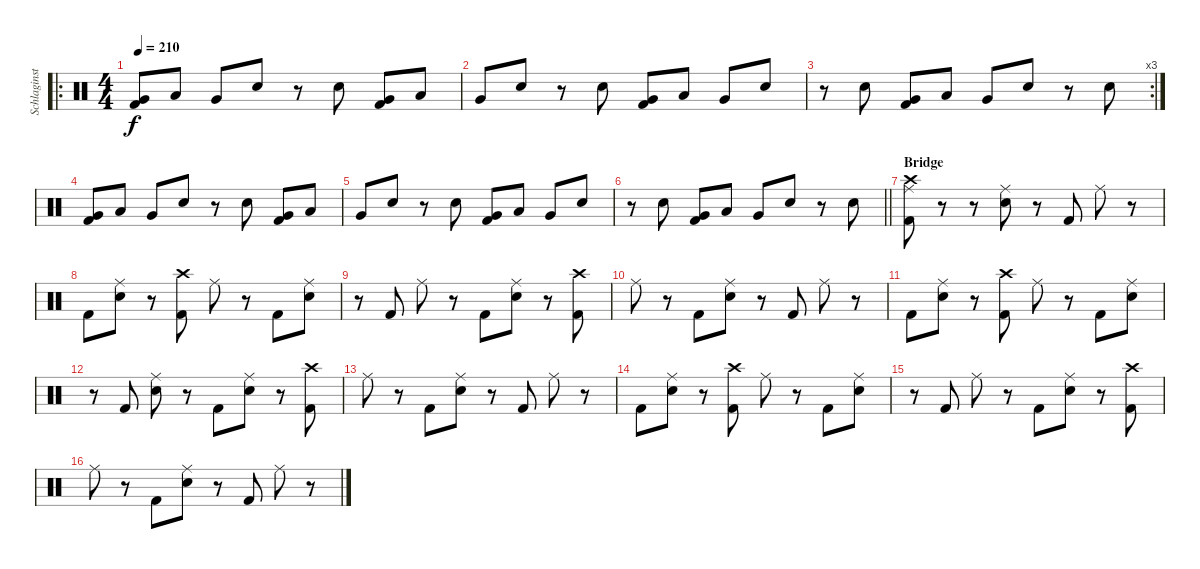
\track ("Schlaginstrumente - Auswahl" "Schlaginst") {instrument percussion}
\staff {score}
\articulation defaults
\ro
\ts (4 4)
\tempo 210
\clef neutral
\ks c
("Kick (hit) 2" "Very Low Tom (hit)").8{dy f} "Low Tom (hit)".8 "Very Low Tom (hit)".8 "Electric Snare (hit)".8 r.8 "Electric Snare (hit)".8 ("Kick (hit) 2" "Very Low Tom (hit)").8 "Low Tom (hit)".8 |
"Very Low Tom (hit)".8 "Electric Snare (hit)".8 r.8 "Electric Snare (hit)".8 ("Kick (hit) 2" "Very Low Tom (hit)").8 "Low Tom (hit)".8 "Very Low Tom (hit)".8 "Electric Snare (hit)".8 |
\rc 3
r.8 "Electric Snare (hit)".8 ("Kick (hit) 2" "Very Low Tom (hit)").8 "Low Tom (hit)".8 "Very Low Tom (hit)".8 "Electric Snare (hit)".8 r.8 "Electric Snare (hit)".8 |
("Kick (hit) 2" "Very Low Tom (hit)").8 "Low Tom (hit)".8 "Very Low Tom (hit)".8 "Electric Snare (hit)".8 r.8 "Electric Snare (hit)".8 ("Kick (hit) 2" "Very Low Tom (hit)").8 "Low Tom (hit)".8 |
"Very Low Tom (hit)".8 "Electric Snare (hit)".8 r.8 "Electric Snare (hit)".8 ("Kick (hit) 2" "Very Low Tom (hit)").8 "Low Tom (hit)".8 "Very Low Tom (hit)".8 "Electric Snare (hit)".8 |
\barLineRight lightlight
r.8 "Electric Snare (hit)".8 ("Kick (hit) 2" "Very Low Tom (hit)").8 "Low Tom (hit)".8 "Very Low Tom (hit)".8 "Electric Snare (hit)".8 r.8 "Electric Snare (hit)".8 |
\section ("" "Bridge")
("Ride (middle)" "Crash high (hit)" "Kick (hit) 2").8 r.8 r.8 ("Ride (middle)" "Electric Snare (hit)").8 r.8 "Kick (hit) 2".8 "Ride (middle)".8 r.8 |
"Kick (hit) 2".8 ("Ride (middle)" "Electric Snare (hit)").8 r.8 ("Crash high (hit)" "Kick (hit) 2").8 "Ride (middle)".8 r.8 "Kick (hit) 2".8 ("Ride (middle)" "Electric Snare (hit)").8 |
r.8 "Kick (hit) 2".8 "Ride (middle)".8 r.8 "Kick (hit) 2".8 ("Ride (middle)" "Electric Snare (hit)").8 r.8 ("Crash high (hit)" "Kick (hit) 2").8 |
"Ride (middle)".8 r.8 "Kick (hit) 2".8 ("Ride (middle)" "Electric Snare (hit)").8 r.8 "Kick (hit) 2".8 "Ride (middle)".8 r.8 |
"Kick (hit) 2".8 ("Ride (middle)" "Electric Snare (hit)").8 r.8 ("Crash high (hit)" "Kick (hit) 2").8 "Ride (middle)".8 r.8 "Kick (hit) 2".8 ("Ride (middle)" "Electric Snare (hit)").8 |
r.8 "Kick (hit) 2".8 ("Ride (middle)" "Electric Snare (hit)").8 r.8 "Kick (hit) 2".8 ("Ride (middle)" "Electric Snare (hit)").8 r.8 ("Crash high (hit)" "Kick (hit) 2").8 |
"Ride (middle)".8 r.8 "Kick (hit) 2".8 ("Ride (middle)" "Electric Snare (hit)").8 r.8 "Kick (hit) 2".8 "Ride (middle)".8 r.8 |
"Kick (hit) 2".8 ("Ride (middle)" "Electric Snare (hit)").8 r.8 ("Crash high (hit)" "Kick (hit) 2").8 "Ride (middle)".8 r.8 "Kick (hit) 2".8 ("Ride (middle)" "Electric Snare (hit)").8 |
r.8 "Kick (hit) 2".8 "Ride (middle)".8 r.8 "Kick (hit) 2".8 ("Ride (middle)" "Electric Snare (hit)").8 r.8 ("Crash high (hit)" "Kick (hit) 2").8 |
"Ride (middle)".8 r.8 "Kick (hit) 2".8 ("Ride (middle)" "Electric Snare (hit)").8 r.8 "Kick (hit) 2".8 "Ride (middle)".8 r.8
